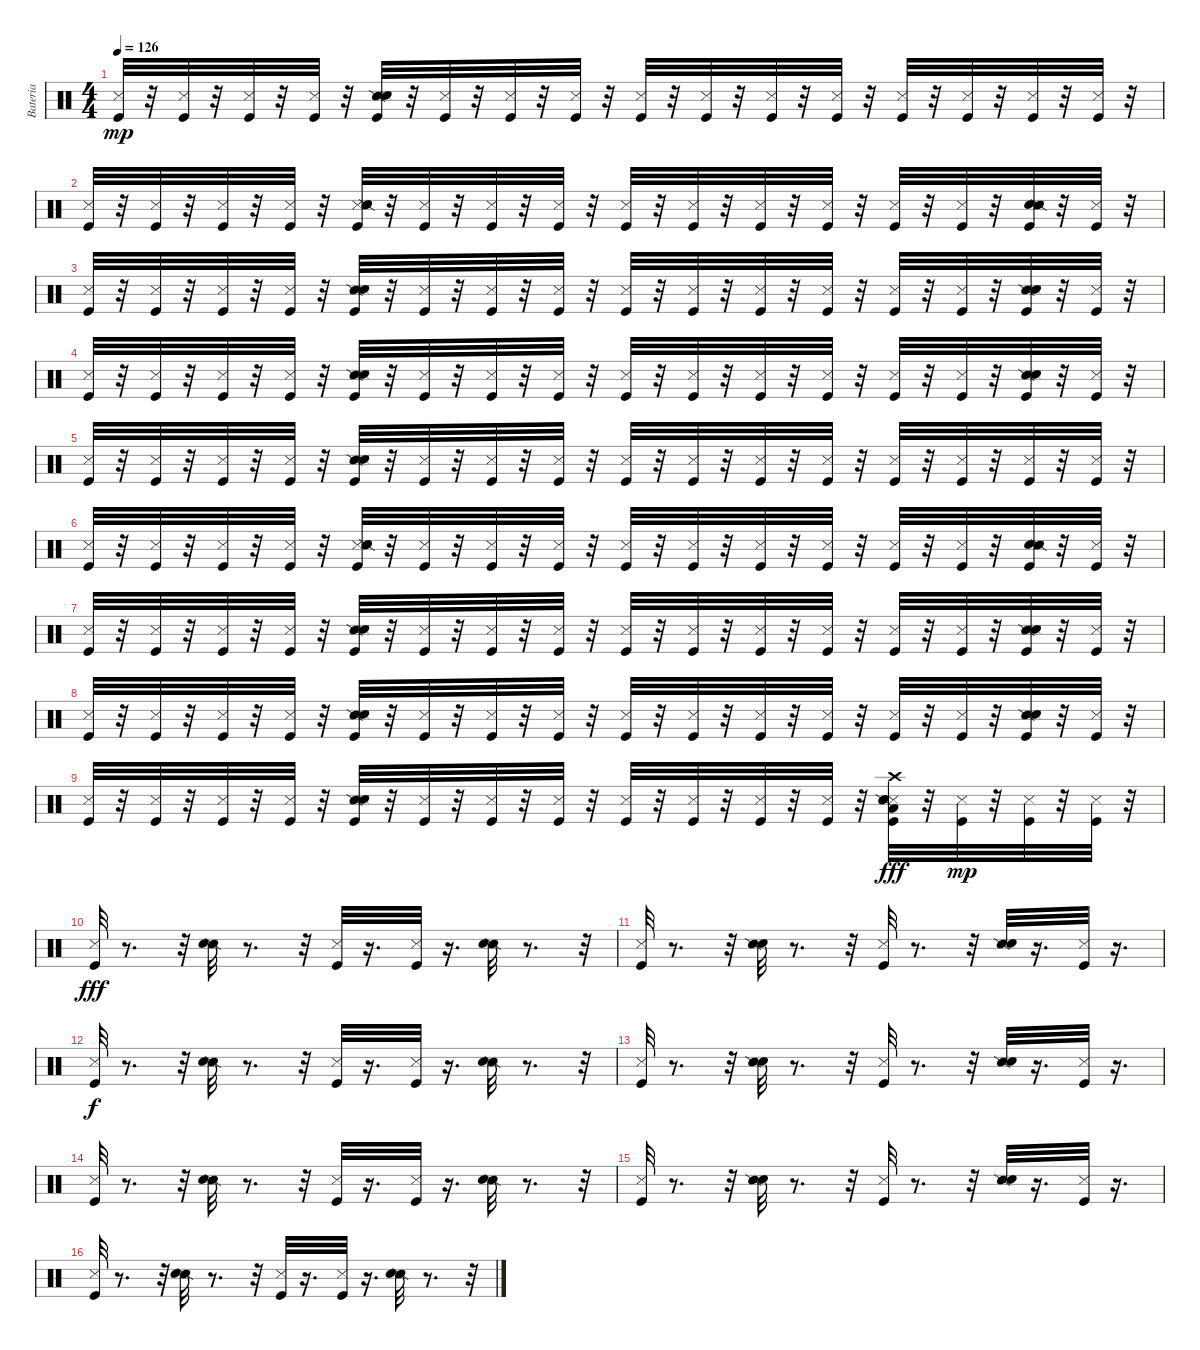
\track ("Bateria" "Bateria") {instrument percussion}
\staff {score}
\articulation defaults
\ts (4 4)
\tempo 126
\clef neutral
\ks c
("Metronome (hit)" "Kick (hit)").32{dy mp} r.32 ("Metronome (hit)" "Kick (hit)").32 r.32 ("Metronome (hit)" "Kick (hit)").32 r.32 ("Metronome (hit)" "Kick (hit)").32 r.32 ("Snare (side stick) 2" "Metronome (hit)" "Kick (hit)" "Metronome (bell)").32 r.32 ("Metronome (hit)" "Kick (hit)").32 r.32 ("Metronome (hit)" "Kick (hit)").32 r.32 ("Metronome (hit)" "Kick (hit)").32 r.32 ("Metronome (hit)" "Kick (hit)").32 r.32 ("Metronome (hit)" "Kick (hit)").32 r.32 ("Metronome (hit)" "Kick (hit)").32 r.32 ("Metronome (hit)" "Kick (hit)").32 r.32 ("Metronome (hit)" "Kick (hit)").32 r.32 ("Metronome (hit)" "Kick (hit)").32 r.32 ("Metronome (hit)" "Kick (hit)").32 r.32 ("Metronome (hit)" "Kick (hit)").32 r.32 |
("Metronome (hit)" "Kick (hit)").32 r.32 ("Metronome (hit)" "Kick (hit)").32 r.32 ("Metronome (hit)" "Kick (hit)").32 r.32 ("Metronome (hit)" "Kick (hit)").32 r.32 ("Metronome (hit)" "Kick (hit)" "Snare (side stick) 2" "Metronome (bell)").32 r.32 ("Metronome (hit)" "Kick (hit)").32 r.32 ("Metronome (hit)" "Kick (hit)").32 r.32 ("Metronome (hit)" "Kick (hit)").32 r.32 ("Metronome (hit)" "Kick (hit)").32 r.32 ("Metronome (hit)" "Kick (hit)").32 r.32 ("Metronome (hit)" "Kick (hit)").32 r.32 ("Metronome (hit)" "Kick (hit)").32 r.32 ("Metronome (hit)" "Kick (hit)").32 r.32 ("Metronome (hit)" "Kick (hit)").32 r.32 ("Metronome (bell)" "Metronome (hit)" "Kick (hit)" "Snare (side stick) 2").32 r.32 ("Metronome (hit)" "Kick (hit)").32 r.32 |
("Metronome (hit)" "Kick (hit)").32 r.32 ("Metronome (hit)" "Kick (hit)").32 r.32 ("Metronome (hit)" "Kick (hit)").32 r.32 ("Metronome (hit)" "Kick (hit)").32 r.32 ("Snare (side stick) 2" "Metronome (bell)" "Metronome (hit)" "Kick (hit)").32 r.32 ("Metronome (hit)" "Kick (hit)").32 r.32 ("Metronome (hit)" "Kick (hit)").32 r.32 ("Metronome (hit)" "Kick (hit)").32 r.32 ("Metronome (hit)" "Kick (hit)").32 r.32 ("Metronome (hit)" "Kick (hit)").32 r.32 ("Metronome (hit)" "Kick (hit)").32 r.32 ("Metronome (hit)" "Kick (hit)").32 r.32 ("Metronome (hit)" "Kick (hit)").32 r.32 ("Metronome (hit)" "Kick (hit)").32 r.32 ("Snare (side stick) 2" "Metronome (bell)" "Metronome (hit)" "Kick (hit)").32 r.32 ("Metronome (hit)" "Kick (hit)").32 r.32 |
("Metronome (hit)" "Kick (hit)").32 r.32 ("Metronome (hit)" "Kick (hit)").32 r.32 ("Metronome (hit)" "Kick (hit)").32 r.32 ("Metronome (hit)" "Kick (hit)").32 r.32 ("Snare (side stick) 2" "Metronome (bell)" "Metronome (hit)" "Kick (hit)").32 r.32 ("Metronome (hit)" "Kick (hit)").32 r.32 ("Metronome (hit)" "Kick (hit)").32 r.32 ("Metronome (hit)" "Kick (hit)").32 r.32 ("Metronome (hit)" "Kick (hit)").32 r.32 ("Metronome (hit)" "Kick (hit)").32 r.32 ("Metronome (hit)" "Kick (hit)").32 r.32 ("Metronome (hit)" "Kick (hit)").32 r.32 ("Metronome (hit)" "Kick (hit)").32 r.32 ("Metronome (hit)" "Kick (hit)").32 r.32 ("Snare (side stick) 2" "Metronome (bell)" "Metronome (hit)" "Kick (hit)").32 r.32 ("Metronome (hit)" "Kick (hit)").32 r.32 |
("Metronome (hit)" "Kick (hit)").32 r.32 ("Metronome (hit)" "Kick (hit)").32 r.32 ("Metronome (hit)" "Kick (hit)").32 r.32 ("Metronome (hit)" "Kick (hit)").32 r.32 ("Snare (side stick) 2" "Metronome (hit)" "Kick (hit)" "Metronome (bell)").32 r.32 ("Metronome (hit)" "Kick (hit)").32 r.32 ("Metronome (hit)" "Kick (hit)").32 r.32 ("Metronome (hit)" "Kick (hit)").32 r.32 ("Metronome (hit)" "Kick (hit)").32 r.32 ("Metronome (hit)" "Kick (hit)").32 r.32 ("Metronome (hit)" "Kick (hit)").32 r.32 ("Metronome (hit)" "Kick (hit)").32 r.32 ("Metronome (hit)" "Kick (hit)").32 r.32 ("Metronome (hit)" "Kick (hit)").32 r.32 ("Metronome (hit)" "Kick (hit)").32 r.32 ("Metronome (hit)" "Kick (hit)").32 r.32 |
("Metronome (hit)" "Kick (hit)").32 r.32 ("Metronome (hit)" "Kick (hit)").32 r.32 ("Metronome (hit)" "Kick (hit)").32 r.32 ("Metronome (hit)" "Kick (hit)").32 r.32 ("Metronome (hit)" "Kick (hit)" "Snare (side stick) 2" "Metronome (bell)").32 r.32 ("Metronome (hit)" "Kick (hit)").32 r.32 ("Metronome (hit)" "Kick (hit)").32 r.32 ("Metronome (hit)" "Kick (hit)").32 r.32 ("Metronome (hit)" "Kick (hit)").32 r.32 ("Metronome (hit)" "Kick (hit)").32 r.32 ("Metronome (hit)" "Kick (hit)").32 r.32 ("Metronome (hit)" "Kick (hit)").32 r.32 ("Metronome (hit)" "Kick (hit)").32 r.32 ("Metronome (hit)" "Kick (hit)").32 r.32 ("Metronome (bell)" "Metronome (hit)" "Kick (hit)" "Snare (side stick) 2").32 r.32 ("Metronome (hit)" "Kick (hit)").32 r.32 |
("Metronome (hit)" "Kick (hit)").32 r.32 ("Metronome (hit)" "Kick (hit)").32 r.32 ("Metronome (hit)" "Kick (hit)").32 r.32 ("Metronome (hit)" "Kick (hit)").32 r.32 ("Snare (side stick) 2" "Metronome (bell)" "Metronome (hit)" "Kick (hit)").32 r.32 ("Metronome (hit)" "Kick (hit)").32 r.32 ("Metronome (hit)" "Kick (hit)").32 r.32 ("Metronome (hit)" "Kick (hit)").32 r.32 ("Metronome (hit)" "Kick (hit)").32 r.32 ("Metronome (hit)" "Kick (hit)").32 r.32 ("Metronome (hit)" "Kick (hit)").32 r.32 ("Metronome (hit)" "Kick (hit)").32 r.32 ("Metronome (hit)" "Kick (hit)").32 r.32 ("Metronome (hit)" "Kick (hit)").32 r.32 ("Snare (side stick) 2" "Metronome (bell)" "Metronome (hit)" "Kick (hit)").32 r.32 ("Metronome (hit)" "Kick (hit)").32 r.32 |
("Metronome (hit)" "Kick (hit)").32 r.32 ("Metronome (hit)" "Kick (hit)").32 r.32 ("Metronome (hit)" "Kick (hit)").32 r.32 ("Metronome (hit)" "Kick (hit)").32 r.32 ("Snare (side stick) 2" "Metronome (bell)" "Metronome (hit)" "Kick (hit)").32 r.32 ("Metronome (hit)" "Kick (hit)").32 r.32 ("Metronome (hit)" "Kick (hit)").32 r.32 ("Metronome (hit)" "Kick (hit)").32 r.32 ("Metronome (hit)" "Kick (hit)").32 r.32 ("Metronome (hit)" "Kick (hit)").32 r.32 ("Metronome (hit)" "Kick (hit)").32 r.32 ("Metronome (hit)" "Kick (hit)").32 r.32 ("Metronome (hit)" "Kick (hit)").32 r.32 ("Metronome (hit)" "Kick (hit)").32 r.32 ("Snare (side stick) 2" "Metronome (bell)" "Metronome (hit)" "Kick (hit)").32 r.32 ("Metronome (hit)" "Kick (hit)").32 r.32 |
("Metronome (hit)" "Kick (hit)").32 r.32 ("Metronome (hit)" "Kick (hit)").32 r.32 ("Metronome (hit)" "Kick (hit)").32 r.32 ("Metronome (hit)" "Kick (hit)").32 r.32 ("Snare (side stick) 2" "Metronome (hit)" "Kick (hit)" "Metronome (bell)").32 r.32 ("Metronome (hit)" "Kick (hit)").32 r.32 ("Metronome (hit)" "Kick (hit)").32 r.32 ("Metronome (hit)" "Kick (hit)").32 r.32 ("Metronome (hit)" "Kick (hit)").32 r.32 ("Metronome (hit)" "Kick (hit)").32 r.32 ("Metronome (hit)" "Kick (hit)").32 r.32 ("Metronome (hit)" "Kick (hit)").32 r.32 ("Metronome (hit)" "Kick (hit)" "Low Floor Tom (hit)" "Crash high (hit)" "Snare (side stick) 2" "Metronome (bell)").32{dy fff} r.32 ("Metronome (hit)" "Kick (hit)").32{dy mp} r.32 ("Kick (hit)" "Metronome (hit)").32 r.32 ("Metronome (hit)" "Kick (hit)").32 r.32 |
("Metronome (hit)" "Kick (hit)").32{dy fff} r.8{d} r.32 ("Snare (side stick) 2" "Metronome (bell)").32 r.8{d} r.32 ("Metronome (hit)" "Kick (hit)").32 r.16{d} ("Metronome (hit)" "Kick (hit)").32 r.16{d} ("Snare (side stick) 2" "Metronome (bell)").32 r.8{d} r.32 |
("Metronome (hit)" "Kick (hit)").32 r.8{d} r.32 ("Metronome (bell)" "Snare (side stick) 2").32 r.8{d} r.32 ("Metronome (hit)" "Kick (hit)").32 r.8{d} r.32 ("Snare (side stick) 2" "Metronome (bell)").32 r.16{d} ("Metronome (hit)" "Kick (hit)").32 r.16{d} |
("Metronome (hit)" "Kick (hit)").32{dy f} r.8{d} r.32 ("Snare (side stick) 2" "Metronome (bell)").32 r.8{d} r.32 ("Metronome (hit)" "Kick (hit)").32 r.16{d} ("Metronome (hit)" "Kick (hit)").32 r.16{d} ("Snare (side stick) 2" "Metronome (bell)").32 r.8{d} r.32 |
("Metronome (hit)" "Kick (hit)").32 r.8{d} r.32 ("Metronome (bell)" "Snare (side stick) 2").32 r.8{d} r.32 ("Metronome (hit)" "Kick (hit)").32 r.8{d} r.32 ("Snare (side stick) 2" "Metronome (bell)").32 r.16{d} ("Metronome (hit)" "Kick (hit)").32 r.16{d} |
("Metronome (hit)" "Kick (hit)").32 r.8{d} r.32 ("Snare (side stick) 2" "Metronome (bell)").32 r.8{d} r.32 ("Metronome (hit)" "Kick (hit)").32 r.16{d} ("Metronome (hit)" "Kick (hit)").32 r.16{d} ("Snare (side stick) 2" "Metronome (bell)").32 r.8{d} r.32 |
("Metronome (hit)" "Kick (hit)").32 r.8{d} r.32 ("Metronome (bell)" "Snare (side stick) 2").32 r.8{d} r.32 ("Metronome (hit)" "Kick (hit)").32 r.8{d} r.32 ("Snare (side stick) 2" "Metronome (bell)").32 r.16{d} ("Metronome (hit)" "Kick (hit)").32 r.16{d} |
("Metronome (hit)" "Kick (hit)").32 r.8{d} r.32 ("Snare (side stick) 2" "Metronome (bell)").32 r.8{d} r.32 ("Metronome (hit)" "Kick (hit)").32 r.16{d} ("Metronome (hit)" "Kick (hit)").32 r.16{d} ("Snare (side stick) 2" "Metronome (bell)").32 r.8{d} r.32
